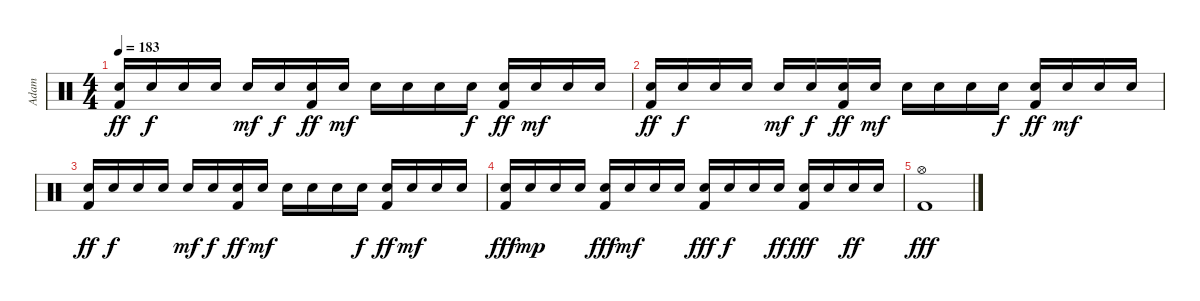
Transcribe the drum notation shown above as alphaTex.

\track ("Adam" "Adam") {instrument percussion}
\staff {score}
\articulation defaults
\ts (4 4)
\tempo 183
\clef neutral
\ks c
("Electric Snare (hit)" "Kick (hit) 2").16{dy ff} "Electric Snare (hit)".16{dy f} "Electric Snare (hit)".16 "Electric Snare (hit)".16 "Electric Snare (hit)".16{dy mf} "Electric Snare (hit)".16{dy f} ("Electric Snare (hit)" "Kick (hit) 2").16{dy ff} "Electric Snare (hit)".16{dy mf} "Electric Snare (hit)".16 "Electric Snare (hit)".16 "Electric Snare (hit)".16 "Electric Snare (hit)".16{dy f} ("Electric Snare (hit)" "Kick (hit) 2").16{dy ff} "Electric Snare (hit)".16{dy mf} "Electric Snare (hit)".16 "Electric Snare (hit)".16 |
("Electric Snare (hit)" "Kick (hit) 2").16{dy ff} "Electric Snare (hit)".16{dy f} "Electric Snare (hit)".16 "Electric Snare (hit)".16 "Electric Snare (hit)".16{dy mf} "Electric Snare (hit)".16{dy f} ("Electric Snare (hit)" "Kick (hit) 2").16{dy ff} "Electric Snare (hit)".16{dy mf} "Electric Snare (hit)".16 "Electric Snare (hit)".16 "Electric Snare (hit)".16 "Electric Snare (hit)".16{dy f} ("Electric Snare (hit)" "Kick (hit) 2").16{dy ff} "Electric Snare (hit)".16{dy mf} "Electric Snare (hit)".16 "Electric Snare (hit)".16 |
("Electric Snare (hit)" "Kick (hit) 2").16{dy ff} "Electric Snare (hit)".16{dy f} "Electric Snare (hit)".16 "Electric Snare (hit)".16 "Electric Snare (hit)".16{dy mf} "Electric Snare (hit)".16{dy f} ("Electric Snare (hit)" "Kick (hit) 2").16{dy ff} "Electric Snare (hit)".16{dy mf} "Electric Snare (hit)".16 "Electric Snare (hit)".16 "Electric Snare (hit)".16 "Electric Snare (hit)".16{dy f} ("Electric Snare (hit)" "Kick (hit) 2").16{dy ff} "Electric Snare (hit)".16{dy mf} "Electric Snare (hit)".16 "Electric Snare (hit)".16 |
("Electric Snare (hit)" "Kick (hit) 2").16{dy fff} "Electric Snare (hit)".16{dy mp} "Electric Snare (hit)".16 "Electric Snare (hit)".16 ("Electric Snare (hit)" "Kick (hit) 2").16{dy fff} "Electric Snare (hit)".16{dy mf} "Electric Snare (hit)".16 "Electric Snare (hit)".16 ("Electric Snare (hit)" "Kick (hit) 2").16{dy fff} "Electric Snare (hit)".16{dy f} "Electric Snare (hit)".16 "Electric Snare (hit)".16{dy ff} ("Electric Snare (hit)" "Kick (hit) 2").16{dy fff} "Electric Snare (hit)".16 "Electric Snare (hit)".16{dy ff} "Electric Snare (hit)".16 |
("Hi-Hat (open)" "Kick (hit) 2").1{dy fff}
